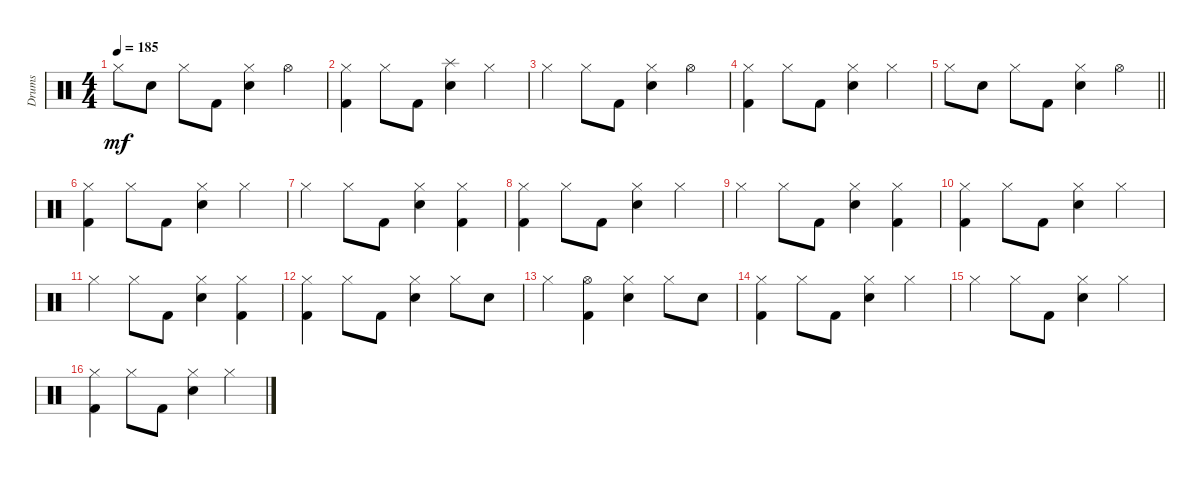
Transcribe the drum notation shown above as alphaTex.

\track ("Drums" "Drums") {instrument percussion}
\staff {score}
\articulation defaults
\ts (4 4)
\tempo 185
\clef neutral
\ks c "Hi-Hat (closed)".8{dy mf} "Snare (hit) 2".8 "Hi-Hat (closed)".8 "Kick (hit) 2".8
("Hi-Hat (closed)" "Snare (hit) 2").4 "Hi-Hat (open)".4 |
("Hi-Hat (closed)" "Kick (hit) 2").4 "Hi-Hat (closed)".8 "Kick (hit) 2".8 ("Splash (hit)" "Snare (hit) 2").4 "Hi-Hat (closed)".4 |
"Hi-Hat (closed)".4 "Hi-Hat (closed)".8 "Kick (hit) 2".8 ("Hi-Hat (closed)" "Snare (hit) 2").4 "Hi-Hat (open)".4 |
("Hi-Hat (closed)" "Kick (hit) 2").4 "Hi-Hat (closed)".8 "Kick (hit) 2".8 ("Hi-Hat (closed)" "Snare (hit) 2").4 "Hi-Hat (closed)".4 |
\barLineRight lightlight "Hi-Hat (closed)".8 "Snare (hit) 2".8 "Hi-Hat (closed)".8 "Kick (hit) 2".8
("Hi-Hat (closed)" "Snare (hit) 2").4 "Hi-Hat (open)".4 |
\section ("" "")
("Hi-Hat (closed)" "Kick (hit) 2").4 "Hi-Hat (closed)".8 "Kick (hit) 2".8 ("Hi-Hat (closed)" "Snare (hit) 2").4 "Hi-Hat (closed)".4 |
"Hi-Hat (closed)".4 "Hi-Hat (closed)".8 "Kick (hit) 2".8 ("Hi-Hat (closed)" "Snare (hit) 2").4 ("Hi-Hat (closed)" "Kick (hit) 2").4 |
("Hi-Hat (closed)" "Kick (hit) 2").4 "Hi-Hat (closed)".8 "Kick (hit) 2".8 ("Hi-Hat (closed)" "Snare (hit) 2").4 "Hi-Hat (closed)".4 |
"Hi-Hat (closed)".4 "Hi-Hat (closed)".8 "Kick (hit) 2".8 ("Hi-Hat (closed)" "Snare (hit) 2").4 ("Hi-Hat (closed)" "Kick (hit) 2").4 |
("Hi-Hat (closed)" "Kick (hit) 2").4 "Hi-Hat (closed)".8 "Kick (hit) 2".8 ("Hi-Hat (closed)" "Snare (hit) 2").4 "Hi-Hat (closed)".4 |
"Hi-Hat (closed)".4 "Hi-Hat (closed)".8 "Kick (hit) 2".8 ("Hi-Hat (closed)" "Snare (hit) 2").4 ("Hi-Hat (closed)" "Kick (hit) 2").4 |
("Hi-Hat (closed)" "Kick (hit) 2").4 "Hi-Hat (closed)".8 "Kick (hit) 2".8 ("Hi-Hat (closed)" "Snare (hit) 2").4 "Hi-Hat (closed)".8 "Snare (hit) 2".8 |
"Hi-Hat (closed)".4 ("Hi-Hat (open)" "Kick (hit) 2").4 ("Hi-Hat (closed)" "Snare (hit) 2").4 "Hi-Hat (closed)".8 "Snare (hit) 2".8 |
("Hi-Hat (closed)" "Kick (hit) 2").4 "Hi-Hat (closed)".8 "Kick (hit) 2".8 ("Hi-Hat (closed)" "Snare (hit) 2").4 "Hi-Hat (closed)".4 |
"Hi-Hat (closed)".4 "Hi-Hat (closed)".8 "Kick (hit) 2".8 ("Hi-Hat (closed)" "Snare (hit) 2").4 "Hi-Hat (closed)".4 |
("Hi-Hat (closed)" "Kick (hit) 2").4 "Hi-Hat (closed)".8 "Kick (hit) 2".8 ("Hi-Hat (closed)" "Snare (hit) 2").4 "Hi-Hat (closed)".4
